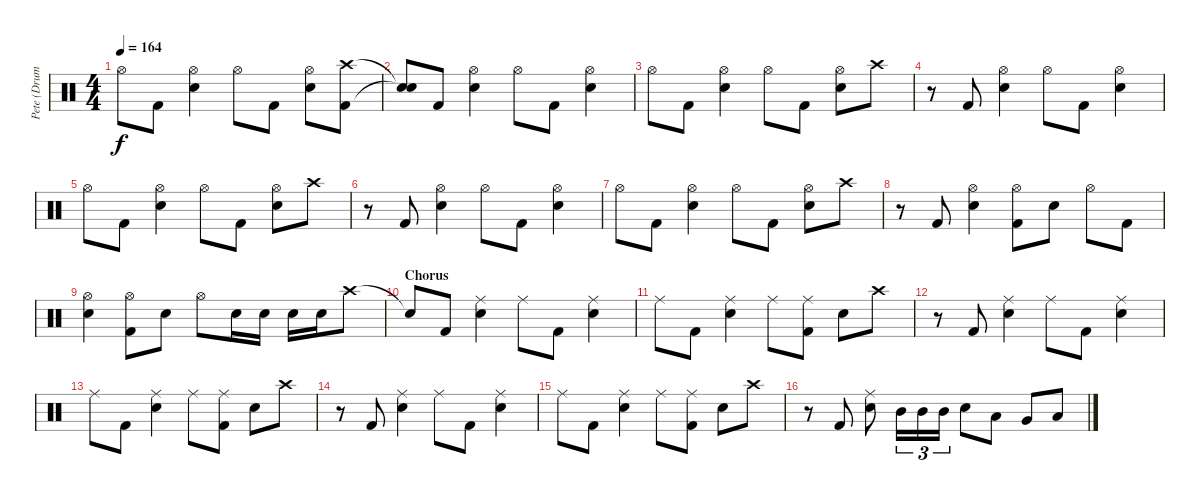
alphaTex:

\track ("Pete (Drums)" "Pete (Drum") {instrument percussion}
\staff {score}
\articulation defaults
\ts (4 4)
\tempo 164
\clef neutral
\ks c "Hi-Hat (open)".8{dy f} "Kick (hit) 2".8
("Hi-Hat (open)" "Snare (hit) 2").4 "Hi-Hat (open)".8 "Kick (hit) 2".8 ("Hi-Hat (open)" "Snare (hit) 2").8 ("Crash high (hit)" "Kick (hit) 2").8 |
("Snare (hit)"{t} "Snare (hit)"{t}).8 "Kick (hit) 2".8 ("Hi-Hat (open)" "Snare (hit) 2").4 "Hi-Hat (open)".8 "Kick (hit) 2".8 ("Hi-Hat (open)" "Snare (hit) 2").4 |
"Hi-Hat (open)".8 "Kick (hit) 2".8 ("Hi-Hat (open)" "Snare (hit) 2").4 "Hi-Hat (open)".8 "Kick (hit) 2".8 ("Hi-Hat (open)" "Snare (hit) 2").8 "Crash high (hit)".8 |
r.8 "Kick (hit) 2".8 ("Hi-Hat (open)" "Snare (hit) 2").4 "Hi-Hat (open)".8 "Kick (hit) 2".8 ("Hi-Hat (open)" "Snare (hit) 2").4 |
"Hi-Hat (open)".8 "Kick (hit) 2".8 ("Hi-Hat (open)" "Snare (hit) 2").4 "Hi-Hat (open)".8 "Kick (hit) 2".8 ("Hi-Hat (open)" "Snare (hit) 2").8 "Crash high (hit)".8 |
r.8 "Kick (hit) 2".8 ("Hi-Hat (open)" "Snare (hit) 2").4 "Hi-Hat (open)".8 "Kick (hit) 2".8 ("Hi-Hat (open)" "Snare (hit) 2").4 |
"Hi-Hat (open)".8 "Kick (hit) 2".8 ("Hi-Hat (open)" "Snare (hit) 2").4 "Hi-Hat (open)".8 "Kick (hit) 2".8 ("Hi-Hat (open)" "Snare (hit) 2").8 "Crash high (hit)".8 |
r.8 "Kick (hit) 2".8 ("Hi-Hat (open)" "Snare (hit) 2").4 ("Hi-Hat (open)" "Kick (hit) 2").8 "Snare (hit) 2".8 "Hi-Hat (open)".8 "Kick (hit) 2".8 |
("Hi-Hat (open)" "Snare (hit) 2").4 ("Hi-Hat (open)" "Kick (hit) 2").8 "Snare (hit) 2".8 "Hi-Hat (open)".8 "Snare (hit) 2".16 "Snare (hit) 2".16 "Snare (hit) 2".16 "Snare (hit) 2".16 "Crash high (hit)".8 |
\section ("" "Chorus")
"Snare (hit)"{t}.8 "Kick (hit) 2".8 ("Ride (middle)" "Snare (hit) 2").4 "Ride (middle)".8 "Kick (hit) 2".8 ("Ride (middle)" "Snare (hit) 2").4 |
"Ride (middle)".8 "Kick (hit) 2".8 ("Ride (middle)" "Snare (hit) 2").4 "Ride (middle)".8 ("Ride (middle)" "Kick (hit) 2").8 "Snare (hit) 2".8 "Crash high (hit)".8 |
r.8 "Kick (hit) 2".8 ("Ride (middle)" "Snare (hit) 2").4 "Ride (middle)".8 "Kick (hit) 2".8 ("Ride (middle)" "Snare (hit) 2").4 |
"Ride (middle)".8 "Kick (hit) 2".8 ("Ride (middle)" "Snare (hit) 2").4 "Ride (middle)".8 ("Ride (middle)" "Kick (hit) 2").8 "Snare (hit) 2".8 "Crash high (hit)".8 |
r.8 "Kick (hit) 2".8 ("Ride (middle)" "Snare (hit) 2").4 "Ride (middle)".8 "Kick (hit) 2".8 ("Ride (middle)" "Snare (hit) 2").4 |
"Ride (middle)".8 "Kick (hit) 2".8 ("Ride (middle)" "Snare (hit) 2").4 "Ride (middle)".8 ("Ride (middle)" "Kick (hit) 2").8 "Snare (hit) 2".8 "Crash high (hit)".8 |
r.8 "Kick (hit) 2".8 ("Ride (middle)" "Snare (hit) 2").8 "Mid Tom (hit)".16{tu (3 2)} "Mid Tom (hit)".16{tu (3 2)} "Mid Tom (hit)".16{tu (3 2)} "Snare (hit) 2".8 "Low Tom (hit)".8 "Very Low Tom (hit)".8 "Low Floor Tom (hit)".8
